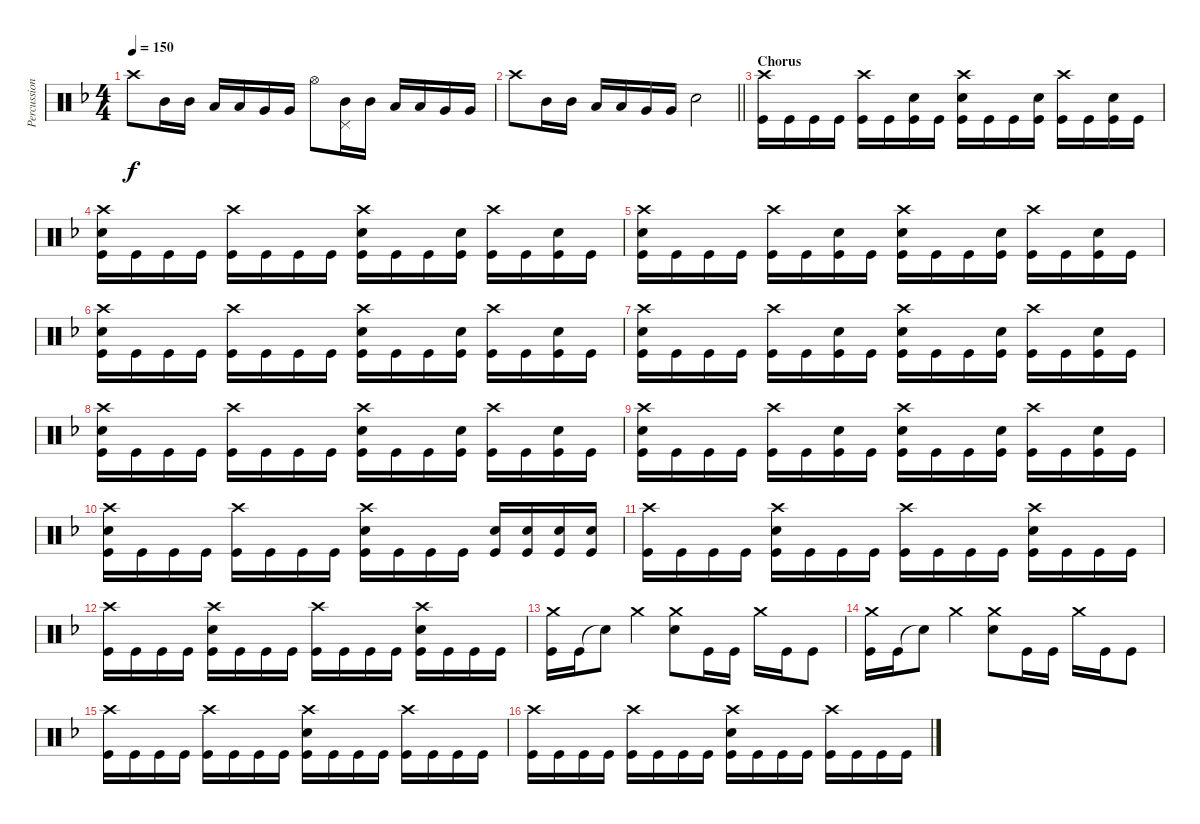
\track ("Percussion" "Percussion") {instrument percussion}
\staff {score}
\articulation defaults
\ts (4 4)
\tempo 150
\clef neutral
\ks f "Crash high (hit)".8{dy f} "Mid Tom (hit)".16 "Mid Tom (hit)".16 "Low Tom (hit)".16 "Low Tom (hit)".16 "Very Low Tom (hit)".16 "Very Low Tom (hit)".16 "Hi-Hat (open)".8
("Pedal Hi-Hat (hit)" "Mid Tom (hit)").16 "Mid Tom (hit)".16 "Low Tom (hit)".16 "Low Tom (hit)".16 "Very Low Tom (hit)".16 "Very Low Tom (hit)".16 |
\barLineRight lightlight "Crash high (hit)".8 "Mid Tom (hit)".16 "Mid Tom (hit)".16 "Low Tom (hit)".16 "Low Tom (hit)".16 "Very Low Tom (hit)".16 "Very Low Tom (hit)".16 "Electric Snare (hit)".2
|
\section ("" "Chorus")
("Crash high (hit)" "Kick (hit)").16 "Kick (hit)".16 "Kick (hit)".16 "Kick (hit)".16 ("Crash high (hit)" "Kick (hit)").16 "Kick (hit)".16 ("Electric Snare (hit)" "Kick (hit)").16 "Kick (hit)".16 ("Crash high (hit)" "Electric Snare (hit)" "Kick (hit)").16 "Kick (hit)".16 "Kick (hit)".16 ("Electric Snare (hit)" "Kick (hit)").16 ("Crash high (hit)" "Kick (hit)").16 "Kick (hit)".16 ("Electric Snare (hit)" "Kick (hit)").16 "Kick (hit)".16 |
("Crash high (hit)" "Electric Snare (hit)" "Kick (hit)").16 "Kick (hit)".16 "Kick (hit)".16 "Kick (hit)".16 ("Crash high (hit)" "Kick (hit)").16 "Kick (hit)".16 "Kick (hit)".16 "Kick (hit)".16 ("Crash high (hit)" "Electric Snare (hit)" "Kick (hit)").16 "Kick (hit)".16 "Kick (hit)".16 ("Electric Snare (hit)" "Kick (hit)").16 ("Crash high (hit)" "Kick (hit)").16 "Kick (hit)".16 ("Electric Snare (hit)" "Kick (hit)").16 "Kick (hit)".16 |
("Crash high (hit)" "Electric Snare (hit)" "Kick (hit)").16 "Kick (hit)".16 "Kick (hit)".16 "Kick (hit)".16 ("Crash high (hit)" "Kick (hit)").16 "Kick (hit)".16 ("Electric Snare (hit)" "Kick (hit)").16 "Kick (hit)".16 ("Crash high (hit)" "Electric Snare (hit)" "Kick (hit)").16 "Kick (hit)".16 "Kick (hit)".16 ("Electric Snare (hit)" "Kick (hit)").16 ("Crash high (hit)" "Kick (hit)").16 "Kick (hit)".16 ("Electric Snare (hit)" "Kick (hit)").16 "Kick (hit)".16 |
("Crash high (hit)" "Electric Snare (hit)" "Kick (hit)").16 "Kick (hit)".16 "Kick (hit)".16 "Kick (hit)".16 ("Crash high (hit)" "Kick (hit)").16 "Kick (hit)".16 "Kick (hit)".16 "Kick (hit)".16 ("Crash high (hit)" "Electric Snare (hit)" "Kick (hit)").16 "Kick (hit)".16 "Kick (hit)".16 ("Electric Snare (hit)" "Kick (hit)").16 ("Crash high (hit)" "Kick (hit)").16 "Kick (hit)".16 ("Electric Snare (hit)" "Kick (hit)").16 "Kick (hit)".16 |
("Crash high (hit)" "Electric Snare (hit)" "Kick (hit)").16 "Kick (hit)".16 "Kick (hit)".16 "Kick (hit)".16 ("Crash high (hit)" "Kick (hit)").16 "Kick (hit)".16 ("Electric Snare (hit)" "Kick (hit)").16 "Kick (hit)".16 ("Crash high (hit)" "Electric Snare (hit)" "Kick (hit)").16 "Kick (hit)".16 "Kick (hit)".16 ("Electric Snare (hit)" "Kick (hit)").16 ("Crash high (hit)" "Kick (hit)").16 "Kick (hit)".16 ("Electric Snare (hit)" "Kick (hit)").16 "Kick (hit)".16 |
("Crash high (hit)" "Electric Snare (hit)" "Kick (hit)").16 "Kick (hit)".16 "Kick (hit)".16 "Kick (hit)".16 ("Crash high (hit)" "Kick (hit)").16 "Kick (hit)".16 "Kick (hit)".16 "Kick (hit)".16 ("Crash high (hit)" "Electric Snare (hit)" "Kick (hit)").16 "Kick (hit)".16 "Kick (hit)".16 ("Electric Snare (hit)" "Kick (hit)").16 ("Crash high (hit)" "Kick (hit)").16 "Kick (hit)".16 ("Electric Snare (hit)" "Kick (hit)").16 "Kick (hit)".16 |
("Crash high (hit)" "Electric Snare (hit)" "Kick (hit)").16 "Kick (hit)".16 "Kick (hit)".16 "Kick (hit)".16 ("Crash high (hit)" "Kick (hit)").16 "Kick (hit)".16 ("Electric Snare (hit)" "Kick (hit)").16 "Kick (hit)".16 ("Crash high (hit)" "Electric Snare (hit)" "Kick (hit)").16 "Kick (hit)".16 "Kick (hit)".16 ("Electric Snare (hit)" "Kick (hit)").16 ("Crash high (hit)" "Kick (hit)").16 "Kick (hit)".16 ("Electric Snare (hit)" "Kick (hit)").16 "Kick (hit)".16 |
("Crash high (hit)" "Electric Snare (hit)" "Kick (hit)").16 "Kick (hit)".16 "Kick (hit)".16 "Kick (hit)".16 ("Crash high (hit)" "Kick (hit)").16 "Kick (hit)".16 "Kick (hit)".16 "Kick (hit)".16 ("Crash high (hit)" "Electric Snare (hit)" "Kick (hit)").16 "Kick (hit)".16 "Kick (hit)".16 "Kick (hit)".16 ("Electric Snare (hit)" "Kick (hit)").16 ("Electric Snare (hit)" "Kick (hit)").16 ("Electric Snare (hit)" "Kick (hit)").16 ("Electric Snare (hit)" "Kick (hit)").16 |
("Crash high (hit)" "Kick (hit)").16 "Kick (hit)".16 "Kick (hit)".16 "Kick (hit)".16 ("Crash high (hit)" "Electric Snare (hit)" "Kick (hit)").16 "Kick (hit)".16 "Kick (hit)".16 "Kick (hit)".16 ("Crash high (hit)" "Kick (hit)").16 "Kick (hit)".16 "Kick (hit)".16 "Kick (hit)".16 ("Crash high (hit)" "Electric Snare (hit)" "Kick (hit)").16 "Kick (hit)".16 "Kick (hit)".16 "Kick (hit)".16 |
("Crash high (hit)" "Kick (hit)").16 "Kick (hit)".16 "Kick (hit)".16 "Kick (hit)".16 ("Crash high (hit)" "Electric Snare (hit)" "Kick (hit)").16 "Kick (hit)".16 "Kick (hit)".16 "Kick (hit)".16 ("Crash high (hit)" "Kick (hit)").16 "Kick (hit)".16 "Kick (hit)".16 "Kick (hit)".16 ("Crash high (hit)" "Electric Snare (hit)" "Kick (hit)").16 "Kick (hit)".16 "Kick (hit)".16 "Kick (hit)".16 |
("Crash medium (hit)" "Kick (hit)").16 "Kick (hit)".16 "Snare (hit)"{t}.8 "Crash medium (hit)".4 ("Crash medium (hit)" "Electric Snare (hit)").8 "Kick (hit)".16 "Kick (hit)".16 "Crash medium (hit)".16 "Kick (hit)".16 "Kick (hit)".8 |
("Crash medium (hit)" "Kick (hit)").16 "Kick (hit)".16 "Snare (hit)"{t}.8 "Crash medium (hit)".4 ("Crash medium (hit)" "Electric Snare (hit)").8 "Kick (hit)".16 "Kick (hit)".16 "Crash medium (hit)".16 "Kick (hit)".16 "Kick (hit)".8 |
("Crash high (hit)" "Kick (hit)").16 "Kick (hit)".16 "Kick (hit)".16 "Kick (hit)".16 ("Crash high (hit)" "Kick (hit)").16 "Kick (hit)".16 "Kick (hit)".16 "Kick (hit)".16 ("Crash high (hit)" "Electric Snare (hit)" "Kick (hit)").16 "Kick (hit)".16 "Kick (hit)".16 "Kick (hit)".16 ("Crash high (hit)" "Kick (hit)").16 "Kick (hit)".16 "Kick (hit)".16 "Kick (hit)".16 |
("Crash high (hit)" "Kick (hit)").16 "Kick (hit)".16 "Kick (hit)".16 "Kick (hit)".16 ("Crash high (hit)" "Kick (hit)").16 "Kick (hit)".16 "Kick (hit)".16 "Kick (hit)".16 ("Crash high (hit)" "Electric Snare (hit)" "Kick (hit)").16 "Kick (hit)".16 "Kick (hit)".16 "Kick (hit)".16 ("Crash high (hit)" "Kick (hit)").16 "Kick (hit)".16 "Kick (hit)".16 "Kick (hit)".16
